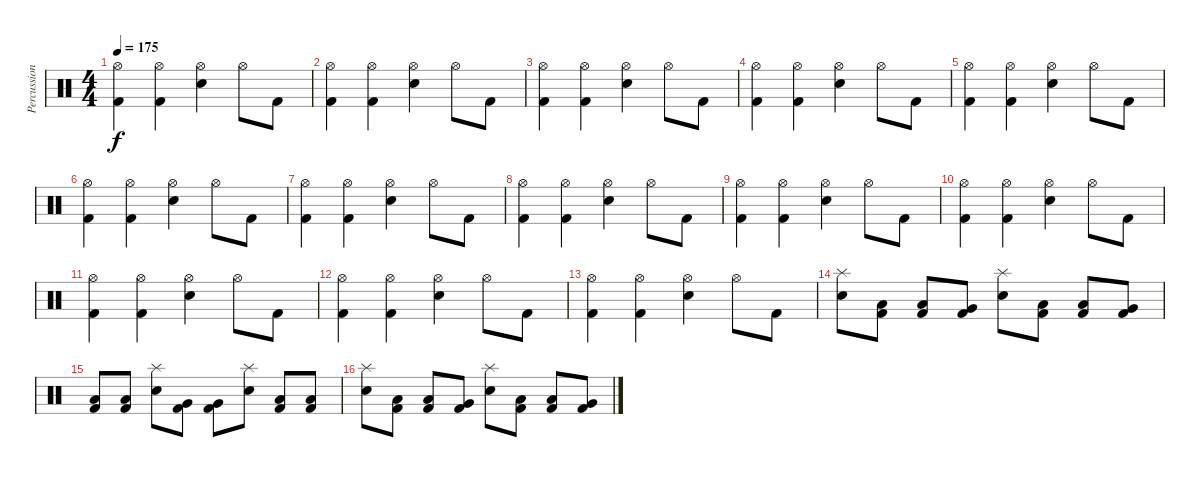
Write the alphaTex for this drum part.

\track ("Percussions" "Percussion") {instrument percussion}
\staff {score}
\articulation defaults
\ts (4 4)
\tempo 175
\clef neutral
\ks c
("Hi-Hat (open)" "Kick (hit) 2").4{dy f} ("Hi-Hat (open)" "Kick (hit) 2").4 ("Hi-Hat (open)" "Electric Snare (hit)").4 "Hi-Hat (open)".8 "Kick (hit) 2".8 |
("Hi-Hat (open)" "Kick (hit) 2").4 ("Hi-Hat (open)" "Kick (hit) 2").4 ("Hi-Hat (open)" "Electric Snare (hit)").4 "Hi-Hat (open)".8 "Kick (hit) 2".8 |
("Hi-Hat (open)" "Kick (hit) 2").4 ("Hi-Hat (open)" "Kick (hit) 2").4 ("Hi-Hat (open)" "Electric Snare (hit)").4 "Hi-Hat (open)".8 "Kick (hit) 2".8 |
("Hi-Hat (open)" "Kick (hit) 2").4 ("Hi-Hat (open)" "Kick (hit) 2").4 ("Hi-Hat (open)" "Electric Snare (hit)").4 "Hi-Hat (open)".8 "Kick (hit) 2".8 |
("Hi-Hat (open)" "Kick (hit) 2").4 ("Hi-Hat (open)" "Kick (hit) 2").4 ("Hi-Hat (open)" "Electric Snare (hit)").4 "Hi-Hat (open)".8 "Kick (hit) 2".8 |
("Hi-Hat (open)" "Kick (hit) 2").4 ("Hi-Hat (open)" "Kick (hit) 2").4 ("Hi-Hat (open)" "Electric Snare (hit)").4 "Hi-Hat (open)".8 "Kick (hit) 2".8 |
("Hi-Hat (open)" "Kick (hit) 2").4 ("Hi-Hat (open)" "Kick (hit) 2").4 ("Hi-Hat (open)" "Electric Snare (hit)").4 "Hi-Hat (open)".8 "Kick (hit) 2".8 |
("Hi-Hat (open)" "Kick (hit) 2").4 ("Hi-Hat (open)" "Kick (hit) 2").4 ("Hi-Hat (open)" "Electric Snare (hit)").4 "Hi-Hat (open)".8 "Kick (hit) 2".8 |
("Hi-Hat (open)" "Kick (hit) 2").4 ("Hi-Hat (open)" "Kick (hit) 2").4 ("Hi-Hat (open)" "Electric Snare (hit)").4 "Hi-Hat (open)".8 "Kick (hit) 2".8 |
("Hi-Hat (open)" "Kick (hit) 2").4 ("Hi-Hat (open)" "Kick (hit) 2").4 ("Hi-Hat (open)" "Electric Snare (hit)").4 "Hi-Hat (open)".8 "Kick (hit) 2".8 |
("Hi-Hat (open)" "Kick (hit) 2").4 ("Hi-Hat (open)" "Kick (hit) 2").4 ("Hi-Hat (open)" "Electric Snare (hit)").4 "Hi-Hat (open)".8 "Kick (hit) 2".8 |
("Hi-Hat (open)" "Kick (hit) 2").4 ("Hi-Hat (open)" "Kick (hit) 2").4 ("Hi-Hat (open)" "Electric Snare (hit)").4 "Hi-Hat (open)".8 "Kick (hit) 2".8 |
("Hi-Hat (open)" "Kick (hit) 2").4 ("Hi-Hat (open)" "Kick (hit) 2").4 ("Hi-Hat (open)" "Electric Snare (hit)").4 "Hi-Hat (open)".8 "Kick (hit) 2".8 |
("Splash (hit)" "Electric Snare (hit)").8 ("Low Tom (hit)" "Kick (hit) 2").8 ("Low Tom (hit)" "Kick (hit) 2").8 ("Very Low Tom (hit)" "Kick (hit) 2").8 ("Splash (hit)" "Electric Snare (hit)").8 ("Low Tom (hit)" "Kick (hit) 2").8 ("Low Tom (hit)" "Kick (hit) 2").8 ("Very Low Tom (hit)" "Kick (hit) 2").8 |
("Low Tom (hit)" "Kick (hit) 2").8 ("Low Tom (hit)" "Kick (hit) 2").8 ("Splash (hit)" "Electric Snare (hit)").8 ("Very Low Tom (hit)" "Kick (hit) 2").8 ("Very Low Tom (hit)" "Kick (hit) 2").8 ("Splash (hit)" "Electric Snare (hit)").8 ("Low Floor Tom (hit)" "Kick (hit) 2").8 ("Low Floor Tom (hit)" "Kick (hit) 2").8 |
("Splash (hit)" "Electric Snare (hit)").8 ("Low Tom (hit)" "Kick (hit) 2").8 ("Low Tom (hit)" "Kick (hit) 2").8 ("Very Low Tom (hit)" "Kick (hit) 2").8 ("Splash (hit)" "Electric Snare (hit)").8 ("Low Tom (hit)" "Kick (hit) 2").8 ("Low Tom (hit)" "Kick (hit) 2").8 ("Very Low Tom (hit)" "Kick (hit) 2").8
